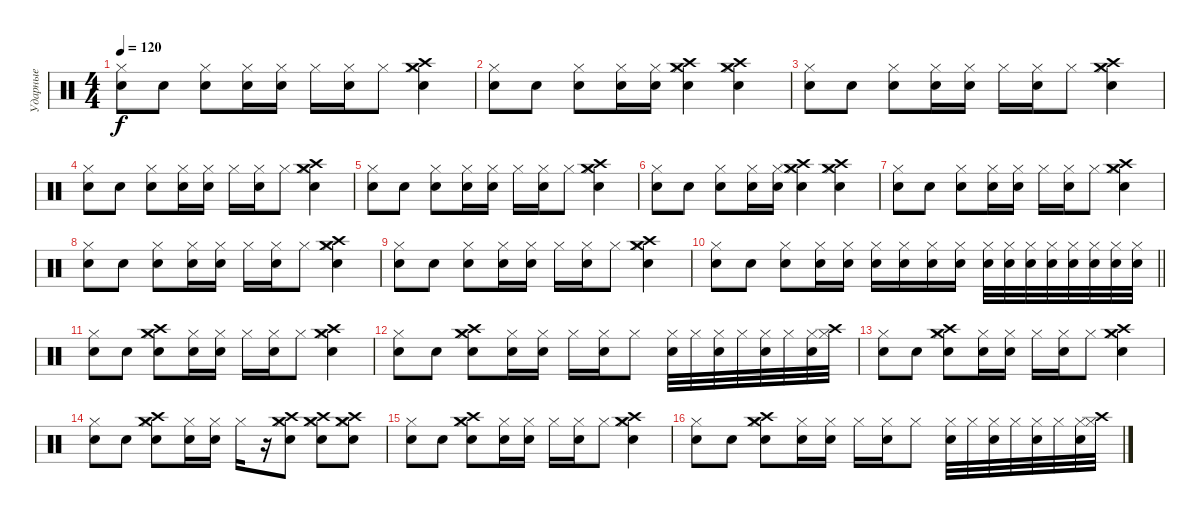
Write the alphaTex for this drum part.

\track ("Ударные" "Ударные") {instrument percussion}
\staff {score}
\articulation defaults
\ts (4 4)
\tempo 120
\clef neutral
\ks c
("Hi-Hat (closed)" "Electric Snare (hit)").8{dy f} "Electric Snare (hit)".8 ("Hi-Hat (closed)" "Electric Snare (hit)").8 ("Hi-Hat (closed)" "Electric Snare (hit)").16 ("Hi-Hat (closed)" "Electric Snare (hit)").16 "Hi-Hat (closed)".16 ("Hi-Hat (closed)" "Electric Snare (hit)").16 "Hi-Hat (closed)".8 ("Crash high (hit)" "Crash medium (hit)" "Electric Snare (hit)" "Hi-Hat (closed)").4 |
("Hi-Hat (closed)" "Electric Snare (hit)").8 "Electric Snare (hit)".8 ("Hi-Hat (closed)" "Electric Snare (hit)").8 ("Hi-Hat (closed)" "Electric Snare (hit)").16 ("Hi-Hat (closed)" "Electric Snare (hit)").16 ("Crash high (hit)" "Crash medium (hit)" "Electric Snare (hit)" "Hi-Hat (closed)").4 ("Crash high (hit)" "Crash medium (hit)" "Electric Snare (hit)" "Hi-Hat (closed)").4 |
("Hi-Hat (closed)" "Electric Snare (hit)").8 "Electric Snare (hit)".8 ("Hi-Hat (closed)" "Electric Snare (hit)").8 ("Hi-Hat (closed)" "Electric Snare (hit)").16 ("Hi-Hat (closed)" "Electric Snare (hit)").16 "Hi-Hat (closed)".16 ("Hi-Hat (closed)" "Electric Snare (hit)").16 "Hi-Hat (closed)".8 ("Crash high (hit)" "Crash medium (hit)" "Electric Snare (hit)" "Hi-Hat (closed)").4 |
("Hi-Hat (closed)" "Electric Snare (hit)").8 "Electric Snare (hit)".8 ("Hi-Hat (closed)" "Electric Snare (hit)").8 ("Hi-Hat (closed)" "Electric Snare (hit)").16 ("Hi-Hat (closed)" "Electric Snare (hit)").16 "Hi-Hat (closed)".16 ("Hi-Hat (closed)" "Electric Snare (hit)").16 "Hi-Hat (closed)".8 ("Crash high (hit)" "Crash medium (hit)" "Electric Snare (hit)" "Hi-Hat (closed)").4 |
("Hi-Hat (closed)" "Electric Snare (hit)").8 "Electric Snare (hit)".8 ("Hi-Hat (closed)" "Electric Snare (hit)").8 ("Hi-Hat (closed)" "Electric Snare (hit)").16 ("Hi-Hat (closed)" "Electric Snare (hit)").16 "Hi-Hat (closed)".16 ("Hi-Hat (closed)" "Electric Snare (hit)").16 "Hi-Hat (closed)".8 ("Crash high (hit)" "Crash medium (hit)" "Electric Snare (hit)" "Hi-Hat (closed)").4 |
("Hi-Hat (closed)" "Electric Snare (hit)").8 "Electric Snare (hit)".8 ("Hi-Hat (closed)" "Electric Snare (hit)").8 ("Hi-Hat (closed)" "Electric Snare (hit)").16 ("Hi-Hat (closed)" "Electric Snare (hit)").16 ("Crash high (hit)" "Crash medium (hit)" "Electric Snare (hit)" "Hi-Hat (closed)").4 ("Crash high (hit)" "Crash medium (hit)" "Electric Snare (hit)" "Hi-Hat (closed)").4 |
("Hi-Hat (closed)" "Electric Snare (hit)").8 "Electric Snare (hit)".8 ("Hi-Hat (closed)" "Electric Snare (hit)").8 ("Hi-Hat (closed)" "Electric Snare (hit)").16 ("Hi-Hat (closed)" "Electric Snare (hit)").16 "Hi-Hat (closed)".16 ("Hi-Hat (closed)" "Electric Snare (hit)").16 "Hi-Hat (closed)".8 ("Crash high (hit)" "Crash medium (hit)" "Electric Snare (hit)" "Hi-Hat (closed)").4 |
("Hi-Hat (closed)" "Electric Snare (hit)").8 "Electric Snare (hit)".8 ("Hi-Hat (closed)" "Electric Snare (hit)").8 ("Hi-Hat (closed)" "Electric Snare (hit)").16 ("Hi-Hat (closed)" "Electric Snare (hit)").16 "Hi-Hat (closed)".16 ("Hi-Hat (closed)" "Electric Snare (hit)").16 "Hi-Hat (closed)".8 ("Crash high (hit)" "Crash medium (hit)" "Electric Snare (hit)" "Hi-Hat (closed)").4 |
("Hi-Hat (closed)" "Electric Snare (hit)").8 "Electric Snare (hit)".8 ("Hi-Hat (closed)" "Electric Snare (hit)").8 ("Hi-Hat (closed)" "Electric Snare (hit)").16 ("Hi-Hat (closed)" "Electric Snare (hit)").16 "Hi-Hat (closed)".16 ("Hi-Hat (closed)" "Electric Snare (hit)").16 "Hi-Hat (closed)".8 ("Crash high (hit)" "Crash medium (hit)" "Electric Snare (hit)" "Hi-Hat (closed)").4 |
\barLineRight lightlight
("Hi-Hat (closed)" "Electric Snare (hit)").8 "Electric Snare (hit)".8 ("Hi-Hat (closed)" "Electric Snare (hit)").8 ("Hi-Hat (closed)" "Electric Snare (hit)").16 ("Hi-Hat (closed)" "Electric Snare (hit)").16 ("Hi-Hat (closed)" "Electric Snare (hit)").16 ("Hi-Hat (closed)" "Electric Snare (hit)").16 ("Hi-Hat (closed)" "Electric Snare (hit)").16 ("Hi-Hat (closed)" "Electric Snare (hit)").16 ("Hi-Hat (closed)" "Electric Snare (hit)").32 ("Hi-Hat (closed)" "Electric Snare (hit)").32 ("Hi-Hat (closed)" "Electric Snare (hit)").32 ("Hi-Hat (closed)" "Electric Snare (hit)").32 ("Hi-Hat (closed)" "Electric Snare (hit)").32 ("Hi-Hat (closed)" "Electric Snare (hit)").32 ("Hi-Hat (closed)" "Electric Snare (hit)").32 ("Hi-Hat (closed)" "Electric Snare (hit)").32 |
("Hi-Hat (closed)" "Electric Snare (hit)").8 "Electric Snare (hit)".8 ("Crash high (hit)" "Crash medium (hit)" "Electric Snare (hit)" "Hi-Hat (closed)").8 ("Hi-Hat (closed)" "Electric Snare (hit)").16 ("Hi-Hat (closed)" "Electric Snare (hit)").16 "Hi-Hat (closed)".16 ("Hi-Hat (closed)" "Electric Snare (hit)").16 "Hi-Hat (closed)".8 ("Crash high (hit)" "Crash medium (hit)" "Electric Snare (hit)" "Hi-Hat (closed)").4 |
("Hi-Hat (closed)" "Electric Snare (hit)").8 "Electric Snare (hit)".8 ("Crash high (hit)" "Crash medium (hit)" "Electric Snare (hit)" "Hi-Hat (closed)").8 ("Hi-Hat (closed)" "Electric Snare (hit)").16 ("Hi-Hat (closed)" "Electric Snare (hit)").16 "Hi-Hat (closed)".16 ("Hi-Hat (closed)" "Electric Snare (hit)").16 "Hi-Hat (closed)".8 ("Hi-Hat (closed)" "Electric Snare (hit)").32 "Hi-Hat (closed)".32 ("Hi-Hat (closed)" "Electric Snare (hit)").32 "Hi-Hat (closed)".32 ("Hi-Hat (closed)" "Electric Snare (hit)").32 "Hi-Hat (closed)".32 ("Hi-Hat (closed)" "Electric Snare (hit)").32 ("Crash high (hit)" "Hi-Hat (closed)").32 |
("Hi-Hat (closed)" "Electric Snare (hit)").8 "Electric Snare (hit)".8 ("Crash high (hit)" "Crash medium (hit)" "Electric Snare (hit)" "Hi-Hat (closed)").8 ("Hi-Hat (closed)" "Electric Snare (hit)").16 ("Hi-Hat (closed)" "Electric Snare (hit)").16 "Hi-Hat (closed)".16 ("Hi-Hat (closed)" "Electric Snare (hit)").16 "Hi-Hat (closed)".8 ("Crash high (hit)" "Crash medium (hit)" "Electric Snare (hit)" "Hi-Hat (closed)").4 |
("Hi-Hat (closed)" "Electric Snare (hit)").8 "Electric Snare (hit)".8 ("Crash high (hit)" "Crash medium (hit)" "Electric Snare (hit)" "Hi-Hat (closed)").8 ("Hi-Hat (closed)" "Electric Snare (hit)").16 ("Hi-Hat (closed)" "Electric Snare (hit)").16 "Hi-Hat (closed)".16 r.16 ("Crash high (hit)" "Crash medium (hit)" "Electric Snare (hit)" "Hi-Hat (closed)").8 ("Crash high (hit)" "Crash medium (hit)" "Electric Snare (hit)" "Hi-Hat (closed)").8 ("Crash high (hit)" "Crash medium (hit)" "Electric Snare (hit)" "Hi-Hat (closed)").8 |
("Hi-Hat (closed)" "Electric Snare (hit)").8 "Electric Snare (hit)".8 ("Crash high (hit)" "Crash medium (hit)" "Electric Snare (hit)" "Hi-Hat (closed)").8 ("Hi-Hat (closed)" "Electric Snare (hit)").16 ("Hi-Hat (closed)" "Electric Snare (hit)").16 "Hi-Hat (closed)".16 ("Hi-Hat (closed)" "Electric Snare (hit)").16 "Hi-Hat (closed)".8 ("Crash high (hit)" "Crash medium (hit)" "Electric Snare (hit)" "Hi-Hat (closed)").4 |
("Hi-Hat (closed)" "Electric Snare (hit)").8 "Electric Snare (hit)".8 ("Crash high (hit)" "Crash medium (hit)" "Electric Snare (hit)" "Hi-Hat (closed)").8 ("Hi-Hat (closed)" "Electric Snare (hit)").16 ("Hi-Hat (closed)" "Electric Snare (hit)").16 "Hi-Hat (closed)".16 ("Hi-Hat (closed)" "Electric Snare (hit)").16 "Hi-Hat (closed)".8 ("Hi-Hat (closed)" "Electric Snare (hit)").32 "Hi-Hat (closed)".32 ("Hi-Hat (closed)" "Electric Snare (hit)").32 "Hi-Hat (closed)".32 ("Hi-Hat (closed)" "Electric Snare (hit)").32 "Hi-Hat (closed)".32 ("Hi-Hat (closed)" "Electric Snare (hit)").32 ("Crash high (hit)" "Hi-Hat (closed)").32
